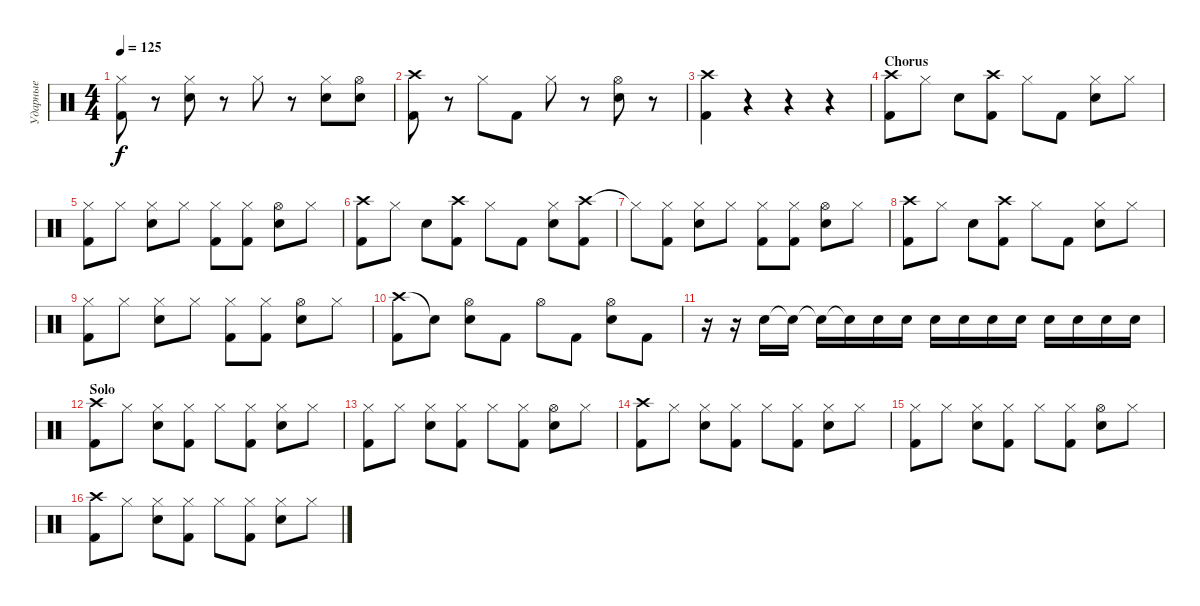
\track ("Ударные" "Ударные") {instrument percussion}
\staff {score}
\articulation defaults
\ts (4 4)
\tempo 125
\clef neutral
\ks c
("Kick (hit) 2" "Hi-Hat (closed)").8{dy f} r.8 ("Snare (hit) 2" "Hi-Hat (closed)").8 r.8 "Hi-Hat (closed)".8 r.8 ("Snare (hit) 2" "Hi-Hat (closed)").8 ("Snare (hit) 2" "Hi-Hat (open)").8 |
("Kick (hit) 2" "Crash high (hit)").8 r.8 "Hi-Hat (closed)".8 "Kick (hit) 2".8 "Hi-Hat (closed)".8 r.8 ("Snare (hit) 2" "Hi-Hat (open)").8 r.8 |
("Crash high (hit)" "Kick (hit) 2").4 r.4 r.4 r.4 |
\section ("" "Chorus")
("Crash high (hit)" "Kick (hit) 2").8 "Hi-Hat (closed)".8 "Snare (hit) 2".8 ("Crash high (hit)" "Kick (hit) 2").8 "Hi-Hat (closed)".8 "Kick (hit) 2".8 ("Hi-Hat (closed)" "Snare (hit) 2").8 "Hi-Hat (closed)".8 |
("Hi-Hat (closed)" "Kick (hit) 2").8 "Hi-Hat (closed)".8 ("Hi-Hat (closed)" "Snare (hit) 2").8 "Hi-Hat (closed)".8 ("Hi-Hat (closed)" "Kick (hit) 2").8 ("Hi-Hat (closed)" "Kick (hit) 2").8 ("Hi-Hat (open)" "Snare (hit) 2").8 "Hi-Hat (closed)".8 |
("Crash high (hit)" "Kick (hit) 2").8 "Hi-Hat (closed)".8 "Snare (hit) 2".8 ("Crash high (hit)" "Kick (hit) 2").8 "Hi-Hat (closed)".8 "Kick (hit) 2".8 ("Hi-Hat (closed)" "Snare (hit) 2").8 ("Crash high (hit)" "Kick (hit) 2").8 |
"Hi-Hat (closed)"{t}.8 ("Hi-Hat (closed)" "Kick (hit) 2").8 ("Hi-Hat (closed)" "Snare (hit) 2").8 "Hi-Hat (closed)".8 ("Hi-Hat (closed)" "Kick (hit) 2").8 ("Hi-Hat (closed)" "Kick (hit) 2").8 ("Hi-Hat (open)" "Snare (hit) 2").8 "Hi-Hat (closed)".8 |
("Crash high (hit)" "Kick (hit) 2").8 "Hi-Hat (closed)".8 "Snare (hit) 2".8 ("Crash high (hit)" "Kick (hit) 2").8 "Hi-Hat (closed)".8 "Kick (hit) 2".8 ("Hi-Hat (closed)" "Snare (hit) 2").8 "Hi-Hat (closed)".8 |
("Hi-Hat (closed)" "Kick (hit) 2").8 "Hi-Hat (closed)".8 ("Hi-Hat (closed)" "Snare (hit) 2").8 "Hi-Hat (closed)".8 ("Hi-Hat (closed)" "Kick (hit) 2").8 ("Hi-Hat (closed)" "Kick (hit) 2").8 ("Hi-Hat (open)" "Snare (hit) 2").8 "Hi-Hat (closed)".8 |
("Crash high (hit)" "Kick (hit) 2").8 "Snare (hit)"{t}.8 ("Snare (hit) 2" "Hi-Hat (open)").8 "Kick (hit) 2".8 "Hi-Hat (open)".8 "Kick (hit) 2".8 ("Snare (hit) 2" "Hi-Hat (open)").8 "Kick (hit) 2".8 |
r.16 r.16 "Snare (hit) 2".16 "Snare (hit) 2"{t}.16 "Snare (hit) 2"{t}.16 "Snare (hit) 2"{t}.16 "Snare (hit) 2".16 "Snare (hit) 2".16 "Snare (hit) 2".16 "Snare (hit) 2".16 "Snare (hit) 2".16 "Snare (hit) 2".16 "Snare (hit) 2".16 "Snare (hit) 2".16 "Snare (hit) 2".16 "Snare (hit) 2".16 |
\section ("" "Solo")
("Kick (hit) 2" "Crash high (hit)").8 "Hi-Hat (closed)".8 ("Snare (hit) 2" "Hi-Hat (closed)").8 ("Kick (hit) 2" "Hi-Hat (closed)").8 "Hi-Hat (closed)".8 ("Kick (hit) 2" "Hi-Hat (closed)").8 ("Snare (hit) 2" "Hi-Hat (closed)").8 "Hi-Hat (closed)".8 |
("Hi-Hat (closed)" "Kick (hit) 2").8 "Hi-Hat (closed)".8 ("Hi-Hat (closed)" "Snare (hit) 2").8 ("Hi-Hat (closed)" "Kick (hit) 2").8 "Hi-Hat (closed)".8 ("Hi-Hat (closed)" "Kick (hit) 2").8 ("Hi-Hat (open)" "Snare (hit) 2").8 "Hi-Hat (closed)".8 |
("Kick (hit) 2" "Crash high (hit)").8 "Hi-Hat (closed)".8 ("Snare (hit) 2" "Hi-Hat (closed)").8 ("Kick (hit) 2" "Hi-Hat (closed)").8 "Hi-Hat (closed)".8 ("Kick (hit) 2" "Hi-Hat (closed)").8 ("Snare (hit) 2" "Hi-Hat (closed)").8 "Hi-Hat (closed)".8 |
("Hi-Hat (closed)" "Kick (hit) 2").8 "Hi-Hat (closed)".8 ("Hi-Hat (closed)" "Snare (hit) 2").8 ("Hi-Hat (closed)" "Kick (hit) 2").8 "Hi-Hat (closed)".8 ("Hi-Hat (closed)" "Kick (hit) 2").8 ("Hi-Hat (open)" "Snare (hit) 2").8 "Hi-Hat (closed)".8 |
("Kick (hit) 2" "Crash high (hit)").8 "Hi-Hat (closed)".8 ("Snare (hit) 2" "Hi-Hat (closed)").8 ("Kick (hit) 2" "Hi-Hat (closed)").8 "Hi-Hat (closed)".8 ("Kick (hit) 2" "Hi-Hat (closed)").8 ("Snare (hit) 2" "Hi-Hat (closed)").8 "Hi-Hat (closed)".8
